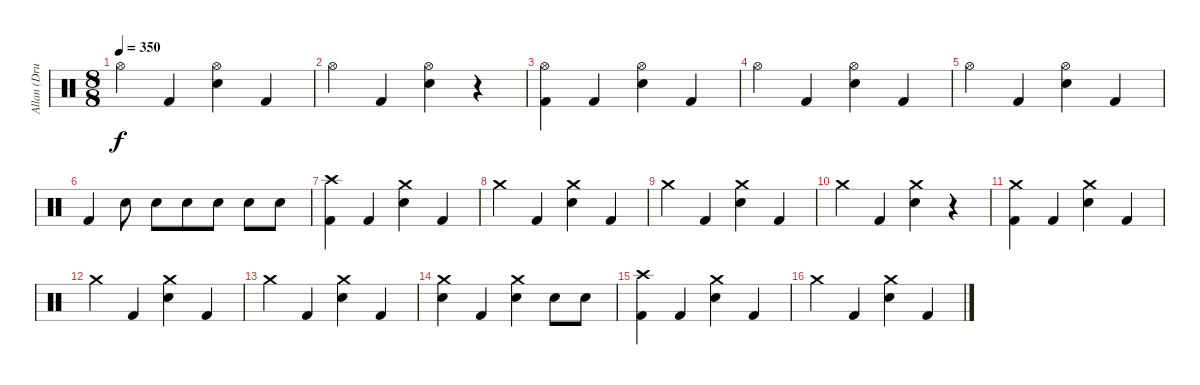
\track ("Allan (Drums)" "Allan (Dru") {solo instrument percussion}
\staff {score}
\articulation defaults
\ts (8 8)
\tempo 350
\clef neutral
\ks c "Hi-Hat (open)".4{dy f} "Kick (hit) 2".4
("Hi-Hat (open)" "Snare (hit) 2").4 "Kick (hit) 2".4 |
"Hi-Hat (open)".4 "Kick (hit) 2".4 ("Hi-Hat (open)" "Snare (hit) 2").4 r.4 |
("Hi-Hat (open)" "Kick (hit) 2").4 "Kick (hit) 2".4 ("Hi-Hat (open)" "Snare (hit) 2").4 "Kick (hit) 2".4 |
"Hi-Hat (open)".4 "Kick (hit) 2".4 ("Hi-Hat (open)" "Snare (hit) 2").4 "Kick (hit) 2".4 |
"Hi-Hat (open)".4 "Kick (hit) 2".4 ("Hi-Hat (open)" "Snare (hit) 2").4 "Kick (hit) 2".4 |
"Kick (hit) 2".4 "Snare (hit) 2".8 "Snare (hit) 2".8 "Snare (hit) 2".8 "Snare (hit) 2".8 "Snare (hit) 2".8 "Snare (hit) 2".8 |
("Crash high (hit)" "Kick (hit) 2").4 "Kick (hit) 2".4 ("Crash medium (hit)" "Snare (hit) 2").4 "Kick (hit) 2".4 |
"Crash medium (hit)".4 "Kick (hit) 2".4 ("Crash medium (hit)" "Snare (hit) 2").4 "Kick (hit) 2".4 |
"Crash medium (hit)".4 "Kick (hit) 2".4 ("Crash medium (hit)" "Snare (hit) 2").4 "Kick (hit) 2".4 |
"Crash medium (hit)".4 "Kick (hit) 2".4 ("Crash medium (hit)" "Snare (hit) 2").4 r.4 |
("Crash medium (hit)" "Kick (hit) 2").4 "Kick (hit) 2".4 ("Crash medium (hit)" "Snare (hit) 2").4 "Kick (hit) 2".4 |
"Crash medium (hit)".4 "Kick (hit) 2".4 ("Crash medium (hit)" "Snare (hit) 2").4 "Kick (hit) 2".4 |
"Crash medium (hit)".4 "Kick (hit) 2".4 ("Crash medium (hit)" "Snare (hit) 2").4 "Kick (hit) 2".4 |
("Crash medium (hit)" "Snare (hit) 2").4 "Kick (hit) 2".4 ("Crash medium (hit)" "Snare (hit) 2").4 "Snare (hit) 2".8 "Snare (hit) 2".8 |
("Crash high (hit)" "Kick (hit) 2").4 "Kick (hit) 2".4 ("Crash medium (hit)" "Snare (hit) 2").4 "Kick (hit) 2".4 |
"Crash medium (hit)".4 "Kick (hit) 2".4 ("Crash medium (hit)" "Snare (hit) 2").4 "Kick (hit) 2".4
